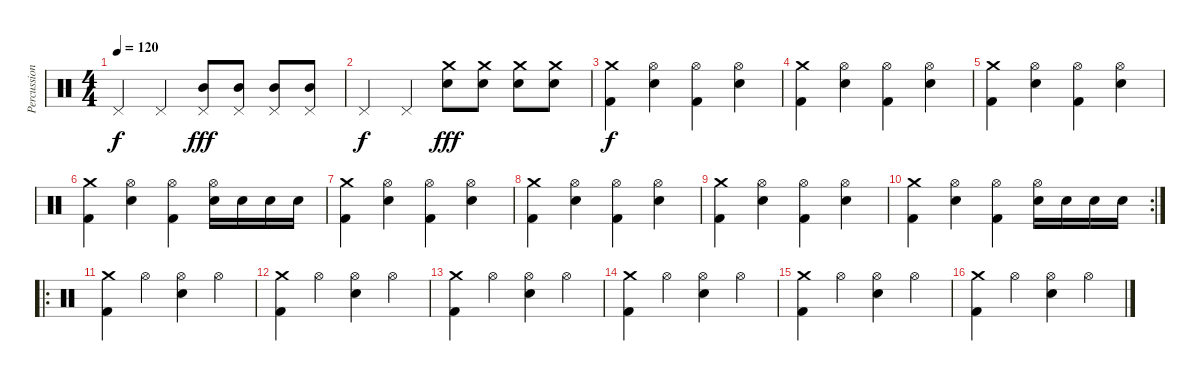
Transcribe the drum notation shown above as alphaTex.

\track ("Percussion" "Percussion") {instrument percussion}
\staff {score}
\articulation defaults
\ts (4 4)
\tempo 120
\clef neutral
\ks c "Pedal Hi-Hat (hit)".4{dy f} "Pedal Hi-Hat (hit)".4
("Pedal Hi-Hat (hit)" "Mid Tom (hit)").8{dy fff} ("Pedal Hi-Hat (hit)" "Mid Tom (hit)").8 ("Pedal Hi-Hat (hit)" "Mid Tom (hit)").8 ("Pedal Hi-Hat (hit)" "Mid Tom (hit)").8 |
"Pedal Hi-Hat (hit)".4{dy f} "Pedal Hi-Hat (hit)".4 ("Crash medium (hit)" "Electric Snare (hit)").8{dy fff} ("Crash medium (hit)" "Electric Snare (hit)").8 ("Crash medium (hit)" "Electric Snare (hit)").8 ("Crash medium (hit)" "Electric Snare (hit)").8 |
("Crash medium (hit)" "Kick (hit) 2").4{dy f} ("Hi-Hat (open)" "Electric Snare (hit)").4 ("Hi-Hat (open)" "Kick (hit) 2").4 ("Hi-Hat (open)" "Electric Snare (hit)").4 |
("Crash medium (hit)" "Kick (hit) 2").4 ("Hi-Hat (open)" "Electric Snare (hit)").4 ("Hi-Hat (open)" "Kick (hit) 2").4 ("Hi-Hat (open)" "Electric Snare (hit)").4 |
("Crash medium (hit)" "Kick (hit) 2").4 ("Hi-Hat (open)" "Electric Snare (hit)").4 ("Hi-Hat (open)" "Kick (hit) 2").4 ("Hi-Hat (open)" "Electric Snare (hit)").4 |
("Crash medium (hit)" "Kick (hit) 2").4 ("Hi-Hat (open)" "Electric Snare (hit)").4 ("Hi-Hat (open)" "Kick (hit) 2").4 ("Hi-Hat (open)" "Electric Snare (hit)").16 "Electric Snare (hit)".16 "Electric Snare (hit)".16 "Electric Snare (hit)".16 |
("Crash medium (hit)" "Kick (hit) 2").4 ("Hi-Hat (open)" "Electric Snare (hit)").4 ("Hi-Hat (open)" "Kick (hit) 2").4 ("Hi-Hat (open)" "Electric Snare (hit)").4 |
("Crash medium (hit)" "Kick (hit) 2").4 ("Hi-Hat (open)" "Electric Snare (hit)").4 ("Hi-Hat (open)" "Kick (hit) 2").4 ("Hi-Hat (open)" "Electric Snare (hit)").4 |
("Crash medium (hit)" "Kick (hit) 2").4 ("Hi-Hat (open)" "Electric Snare (hit)").4 ("Hi-Hat (open)" "Kick (hit) 2").4 ("Hi-Hat (open)" "Electric Snare (hit)").4 |
\rc 2
("Crash medium (hit)" "Kick (hit) 2").4 ("Hi-Hat (open)" "Electric Snare (hit)").4 ("Hi-Hat (open)" "Kick (hit) 2").4 ("Hi-Hat (open)" "Electric Snare (hit)").16 "Electric Snare (hit)".16 "Electric Snare (hit)".16 "Electric Snare (hit)".16 |
\ro
("Crash medium (hit)" "Kick (hit) 2").4 "Hi-Hat (open)".4 ("Hi-Hat (open)" "Electric Snare (hit)").4 "Hi-Hat (open)".4 |
("Crash medium (hit)" "Kick (hit) 2").4 "Hi-Hat (open)".4 ("Hi-Hat (open)" "Electric Snare (hit)").4 "Hi-Hat (open)".4 |
("Crash medium (hit)" "Kick (hit) 2").4 "Hi-Hat (open)".4 ("Hi-Hat (open)" "Electric Snare (hit)").4 "Hi-Hat (open)".4 |
("Crash medium (hit)" "Kick (hit) 2").4 "Hi-Hat (open)".4 ("Hi-Hat (open)" "Electric Snare (hit)").4 "Hi-Hat (open)".4 |
("Crash medium (hit)" "Kick (hit) 2").4 "Hi-Hat (open)".4 ("Hi-Hat (open)" "Electric Snare (hit)").4 "Hi-Hat (open)".4 |
("Crash medium (hit)" "Kick (hit) 2").4 "Hi-Hat (open)".4 ("Hi-Hat (open)" "Electric Snare (hit)").4 "Hi-Hat (open)".4
